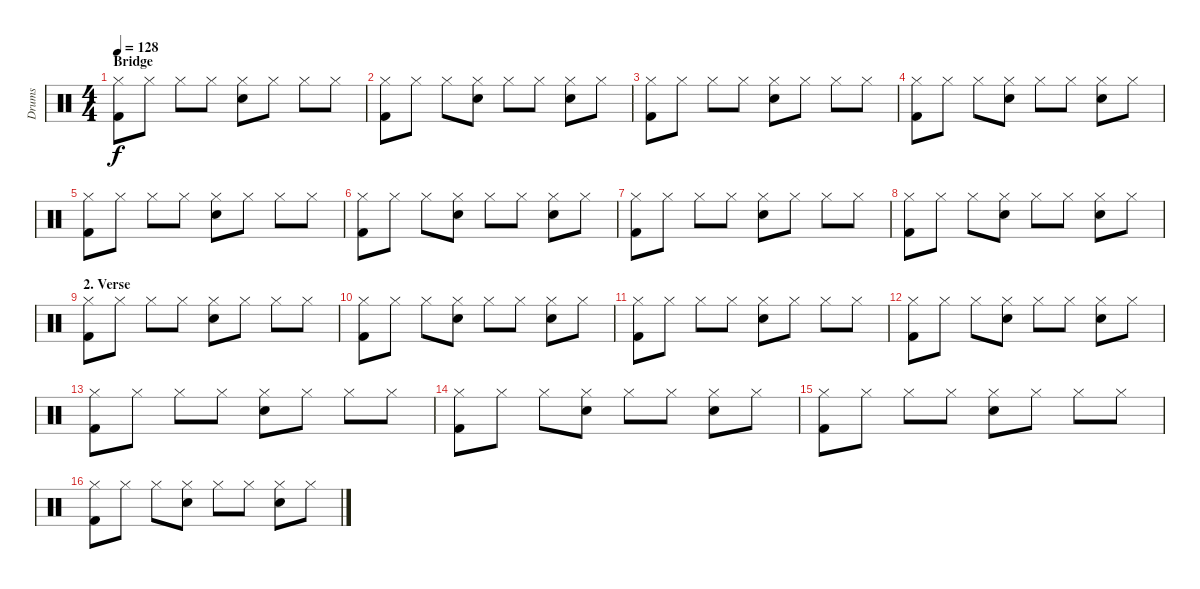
\track ("Drums" "Drums") {instrument percussion}
\staff {score}
\articulation defaults
\ts (4 4)
\section ("" "Bridge")
\tempo 128
\clef neutral
\ks c
("Hi-Hat (closed)" "Kick (hit) 2").8{dy f} "Hi-Hat (closed)".8 "Hi-Hat (closed)".8 "Hi-Hat (closed)".8 ("Hi-Hat (closed)" "Snare (hit) 2").8 "Hi-Hat (closed)".8 "Hi-Hat (closed)".8 "Hi-Hat (closed)".8 |
("Hi-Hat (closed)" "Kick (hit) 2").8 "Hi-Hat (closed)".8 "Hi-Hat (closed)".8 ("Hi-Hat (closed)" "Snare (hit) 2").8 "Hi-Hat (closed)".8 "Hi-Hat (closed)".8 ("Hi-Hat (closed)" "Snare (hit) 2").8 "Hi-Hat (closed)".8 |
("Hi-Hat (closed)" "Kick (hit) 2").8 "Hi-Hat (closed)".8 "Hi-Hat (closed)".8 "Hi-Hat (closed)".8 ("Hi-Hat (closed)" "Snare (hit) 2").8 "Hi-Hat (closed)".8 "Hi-Hat (closed)".8 "Hi-Hat (closed)".8 |
("Hi-Hat (closed)" "Kick (hit) 2").8 "Hi-Hat (closed)".8 "Hi-Hat (closed)".8 ("Hi-Hat (closed)" "Snare (hit) 2").8 "Hi-Hat (closed)".8 "Hi-Hat (closed)".8 ("Hi-Hat (closed)" "Snare (hit) 2").8 "Hi-Hat (closed)".8 |
("Hi-Hat (closed)" "Kick (hit) 2").8 "Hi-Hat (closed)".8 "Hi-Hat (closed)".8 "Hi-Hat (closed)".8 ("Hi-Hat (closed)" "Snare (hit) 2").8 "Hi-Hat (closed)".8 "Hi-Hat (closed)".8 "Hi-Hat (closed)".8 |
("Hi-Hat (closed)" "Kick (hit) 2").8 "Hi-Hat (closed)".8 "Hi-Hat (closed)".8 ("Hi-Hat (closed)" "Snare (hit) 2").8 "Hi-Hat (closed)".8 "Hi-Hat (closed)".8 ("Hi-Hat (closed)" "Snare (hit) 2").8 "Hi-Hat (closed)".8 |
("Hi-Hat (closed)" "Kick (hit) 2").8 "Hi-Hat (closed)".8 "Hi-Hat (closed)".8 "Hi-Hat (closed)".8 ("Hi-Hat (closed)" "Snare (hit) 2").8 "Hi-Hat (closed)".8 "Hi-Hat (closed)".8 "Hi-Hat (closed)".8 |
("Hi-Hat (closed)" "Kick (hit) 2").8 "Hi-Hat (closed)".8 "Hi-Hat (closed)".8 ("Hi-Hat (closed)" "Snare (hit) 2").8 "Hi-Hat (closed)".8 "Hi-Hat (closed)".8 ("Hi-Hat (closed)" "Snare (hit) 2").8 "Hi-Hat (closed)".8 |
\section ("" "2. Verse")
("Hi-Hat (closed)" "Kick (hit) 2").8 "Hi-Hat (closed)".8 "Hi-Hat (closed)".8 "Hi-Hat (closed)".8 ("Hi-Hat (closed)" "Snare (hit) 2").8 "Hi-Hat (closed)".8 "Hi-Hat (closed)".8 "Hi-Hat (closed)".8 |
("Hi-Hat (closed)" "Kick (hit) 2").8 "Hi-Hat (closed)".8 "Hi-Hat (closed)".8 ("Hi-Hat (closed)" "Snare (hit) 2").8 "Hi-Hat (closed)".8 "Hi-Hat (closed)".8 ("Hi-Hat (closed)" "Snare (hit) 2").8 "Hi-Hat (closed)".8 |
("Hi-Hat (closed)" "Kick (hit) 2").8 "Hi-Hat (closed)".8 "Hi-Hat (closed)".8 "Hi-Hat (closed)".8 ("Hi-Hat (closed)" "Snare (hit) 2").8 "Hi-Hat (closed)".8 "Hi-Hat (closed)".8 "Hi-Hat (closed)".8 |
("Hi-Hat (closed)" "Kick (hit) 2").8 "Hi-Hat (closed)".8 "Hi-Hat (closed)".8 ("Hi-Hat (closed)" "Snare (hit) 2").8 "Hi-Hat (closed)".8 "Hi-Hat (closed)".8 ("Hi-Hat (closed)" "Snare (hit) 2").8 "Hi-Hat (closed)".8 |
("Hi-Hat (closed)" "Kick (hit) 2").8 "Hi-Hat (closed)".8 "Hi-Hat (closed)".8 "Hi-Hat (closed)".8 ("Hi-Hat (closed)" "Snare (hit) 2").8 "Hi-Hat (closed)".8 "Hi-Hat (closed)".8 "Hi-Hat (closed)".8 |
("Hi-Hat (closed)" "Kick (hit) 2").8 "Hi-Hat (closed)".8 "Hi-Hat (closed)".8 ("Hi-Hat (closed)" "Snare (hit) 2").8 "Hi-Hat (closed)".8 "Hi-Hat (closed)".8 ("Hi-Hat (closed)" "Snare (hit) 2").8 "Hi-Hat (closed)".8 |
("Hi-Hat (closed)" "Kick (hit) 2").8 "Hi-Hat (closed)".8 "Hi-Hat (closed)".8 "Hi-Hat (closed)".8 ("Hi-Hat (closed)" "Snare (hit) 2").8 "Hi-Hat (closed)".8 "Hi-Hat (closed)".8 "Hi-Hat (closed)".8 |
("Hi-Hat (closed)" "Kick (hit) 2").8 "Hi-Hat (closed)".8 "Hi-Hat (closed)".8 ("Hi-Hat (closed)" "Snare (hit) 2").8 "Hi-Hat (closed)".8 "Hi-Hat (closed)".8 ("Hi-Hat (closed)" "Snare (hit) 2").8 "Hi-Hat (closed)".8
